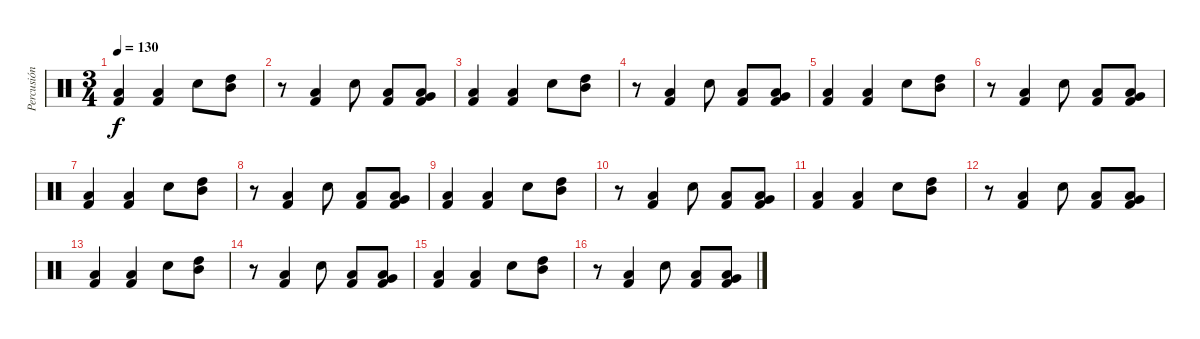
\track ("Percusión" "Percusión") {instrument percussion}
\staff {score}
\articulation defaults
\ts (3 4)
\tempo 130
\clef neutral
\ks c
("Kick (hit) 2" "Low Floor Tom (hit)").4{dy f} ("Kick (hit) 2" "Low Floor Tom (hit)").4 "Snare (hit) 2".8 ("Mid Tom (hit)" "High Tom (hit)").8 |
r.8 ("Kick (hit) 2" "Low Floor Tom (hit)").4 "Snare (hit) 2".8 ("Kick (hit) 2" "Low Floor Tom (hit)").8 ("Kick (hit) 2" "Very Low Tom (hit)" "Low Floor Tom (hit)").8 |
("Kick (hit) 2" "Low Floor Tom (hit)").4 ("Kick (hit) 2" "Low Floor Tom (hit)").4 "Snare (hit) 2".8 ("Mid Tom (hit)" "High Tom (hit)").8 |
r.8 ("Kick (hit) 2" "Low Floor Tom (hit)").4 "Snare (hit) 2".8 ("Kick (hit) 2" "Low Floor Tom (hit)").8 ("Kick (hit) 2" "Very Low Tom (hit)" "Low Floor Tom (hit)").8 |
("Kick (hit) 2" "Low Floor Tom (hit)").4 ("Kick (hit) 2" "Low Floor Tom (hit)").4 "Snare (hit) 2".8 ("Mid Tom (hit)" "High Tom (hit)").8 |
r.8 ("Kick (hit) 2" "Low Floor Tom (hit)").4 "Snare (hit) 2".8 ("Kick (hit) 2" "Low Floor Tom (hit)").8 ("Kick (hit) 2" "Very Low Tom (hit)" "Low Floor Tom (hit)").8 |
("Kick (hit) 2" "Low Floor Tom (hit)").4 ("Kick (hit) 2" "Low Floor Tom (hit)").4 "Snare (hit) 2".8 ("Mid Tom (hit)" "High Tom (hit)").8 |
r.8 ("Kick (hit) 2" "Low Floor Tom (hit)").4 "Snare (hit) 2".8 ("Kick (hit) 2" "Low Floor Tom (hit)").8 ("Kick (hit) 2" "Very Low Tom (hit)" "Low Floor Tom (hit)").8 |
("Kick (hit) 2" "Low Floor Tom (hit)").4 ("Kick (hit) 2" "Low Floor Tom (hit)").4 "Snare (hit) 2".8 ("Mid Tom (hit)" "High Tom (hit)").8 |
r.8 ("Kick (hit) 2" "Low Floor Tom (hit)").4 "Snare (hit) 2".8 ("Kick (hit) 2" "Low Floor Tom (hit)").8 ("Kick (hit) 2" "Very Low Tom (hit)" "Low Floor Tom (hit)").8 |
("Kick (hit) 2" "Low Floor Tom (hit)").4 ("Kick (hit) 2" "Low Floor Tom (hit)").4 "Snare (hit) 2".8 ("Mid Tom (hit)" "High Tom (hit)").8 |
r.8 ("Kick (hit) 2" "Low Floor Tom (hit)").4 "Snare (hit) 2".8 ("Kick (hit) 2" "Low Floor Tom (hit)").8 ("Kick (hit) 2" "Very Low Tom (hit)" "Low Floor Tom (hit)").8 |
("Kick (hit) 2" "Low Floor Tom (hit)").4 ("Kick (hit) 2" "Low Floor Tom (hit)").4 "Snare (hit) 2".8 ("Mid Tom (hit)" "High Tom (hit)").8 |
r.8 ("Kick (hit) 2" "Low Floor Tom (hit)").4 "Snare (hit) 2".8 ("Kick (hit) 2" "Low Floor Tom (hit)").8 ("Kick (hit) 2" "Very Low Tom (hit)" "Low Floor Tom (hit)").8 |
("Kick (hit) 2" "Low Floor Tom (hit)").4 ("Kick (hit) 2" "Low Floor Tom (hit)").4 "Snare (hit) 2".8 ("Mid Tom (hit)" "High Tom (hit)").8 |
r.8 ("Kick (hit) 2" "Low Floor Tom (hit)").4 "Snare (hit) 2".8 ("Kick (hit) 2" "Low Floor Tom (hit)").8 ("Kick (hit) 2" "Very Low Tom (hit)" "Low Floor Tom (hit)").8
